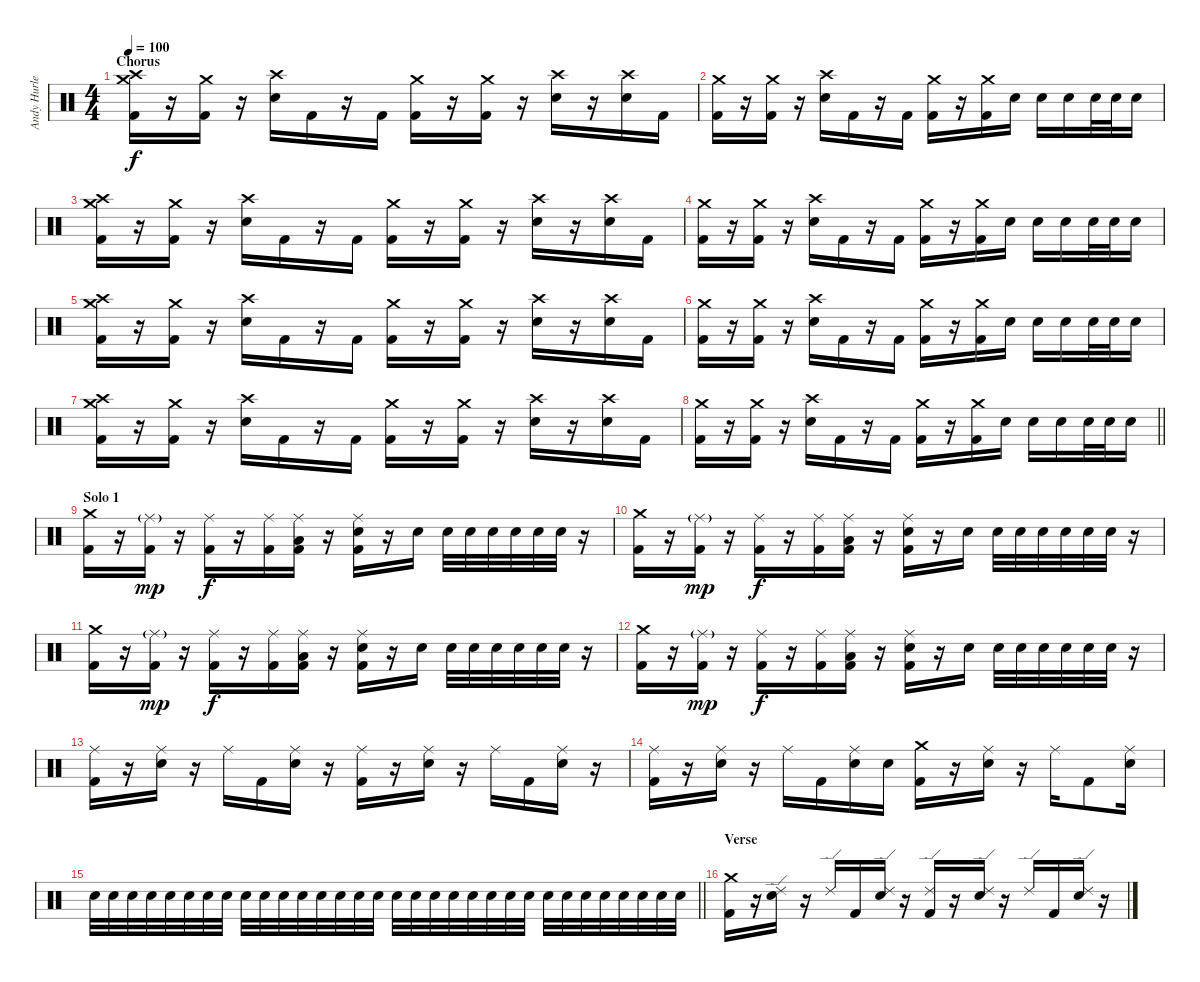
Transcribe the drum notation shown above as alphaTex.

\track ("Andy Hurley" "Andy Hurle") {instrument percussion}
\staff {score}
\articulation defaults
\ts (4 4)
\section ("" "Chorus")
\tempo 100
\clef neutral
\ks c
("Crash high (hit)" "Crash medium (hit)" "Kick (hit) 2").16{dy f} r.16 ("Crash medium (hit)" "Kick (hit) 2").16 r.16 ("Crash high (hit)" "Electric Snare (hit)").16 "Kick (hit) 2".16 r.16 "Kick (hit) 2".16 ("Crash medium (hit)" "Kick (hit) 2").16 r.16 ("Crash medium (hit)" "Kick (hit) 2").16 r.16 ("Crash high (hit)" "Electric Snare (hit)").16 r.16 ("Crash high (hit)" "Electric Snare (hit)").16 "Kick (hit) 2".16 |
("Crash medium (hit)" "Kick (hit) 2").16 r.16 ("Crash medium (hit)" "Kick (hit) 2").16 r.16 ("Crash high (hit)" "Electric Snare (hit)").16 "Kick (hit) 2".16 r.16 "Kick (hit) 2".16 ("Crash medium (hit)" "Kick (hit) 2").16 r.16 ("Crash medium (hit)" "Kick (hit) 2").16 "Electric Snare (hit)".16 "Electric Snare (hit)".16 "Electric Snare (hit)".16 "Electric Snare (hit)".32 "Electric Snare (hit)".32 "Electric Snare (hit)".16 |
("Crash high (hit)" "Crash medium (hit)" "Kick (hit) 2").16 r.16 ("Crash medium (hit)" "Kick (hit) 2").16 r.16 ("Crash high (hit)" "Electric Snare (hit)").16 "Kick (hit) 2".16 r.16 "Kick (hit) 2".16 ("Crash medium (hit)" "Kick (hit) 2").16 r.16 ("Crash medium (hit)" "Kick (hit) 2").16 r.16 ("Crash high (hit)" "Electric Snare (hit)").16 r.16 ("Crash high (hit)" "Electric Snare (hit)").16 "Kick (hit) 2".16 |
("Crash medium (hit)" "Kick (hit) 2").16 r.16 ("Crash medium (hit)" "Kick (hit) 2").16 r.16 ("Crash high (hit)" "Electric Snare (hit)").16 "Kick (hit) 2".16 r.16 "Kick (hit) 2".16 ("Crash medium (hit)" "Kick (hit) 2").16 r.16 ("Crash medium (hit)" "Kick (hit) 2").16 "Electric Snare (hit)".16 "Electric Snare (hit)".16 "Electric Snare (hit)".16 "Electric Snare (hit)".32 "Electric Snare (hit)".32 "Electric Snare (hit)".16 |
("Crash high (hit)" "Crash medium (hit)" "Kick (hit) 2").16 r.16 ("Crash medium (hit)" "Kick (hit) 2").16 r.16 ("Crash high (hit)" "Electric Snare (hit)").16 "Kick (hit) 2".16 r.16 "Kick (hit) 2".16 ("Crash medium (hit)" "Kick (hit) 2").16 r.16 ("Crash medium (hit)" "Kick (hit) 2").16 r.16 ("Crash high (hit)" "Electric Snare (hit)").16 r.16 ("Crash high (hit)" "Electric Snare (hit)").16 "Kick (hit) 2".16 |
("Crash medium (hit)" "Kick (hit) 2").16 r.16 ("Crash medium (hit)" "Kick (hit) 2").16 r.16 ("Crash high (hit)" "Electric Snare (hit)").16 "Kick (hit) 2".16 r.16 "Kick (hit) 2".16 ("Crash medium (hit)" "Kick (hit) 2").16 r.16 ("Crash medium (hit)" "Kick (hit) 2").16 "Electric Snare (hit)".16 "Electric Snare (hit)".16 "Electric Snare (hit)".16 "Electric Snare (hit)".32 "Electric Snare (hit)".32 "Electric Snare (hit)".16 |
("Crash high (hit)" "Crash medium (hit)" "Kick (hit) 2").16 r.16 ("Crash medium (hit)" "Kick (hit) 2").16 r.16 ("Crash high (hit)" "Electric Snare (hit)").16 "Kick (hit) 2".16 r.16 "Kick (hit) 2".16 ("Crash medium (hit)" "Kick (hit) 2").16 r.16 ("Crash medium (hit)" "Kick (hit) 2").16 r.16 ("Crash high (hit)" "Electric Snare (hit)").16 r.16 ("Crash high (hit)" "Electric Snare (hit)").16 "Kick (hit) 2".16 |
\barLineRight lightlight
("Crash medium (hit)" "Kick (hit) 2").16 r.16 ("Crash medium (hit)" "Kick (hit) 2").16 r.16 ("Crash high (hit)" "Electric Snare (hit)").16 "Kick (hit) 2".16 r.16 "Kick (hit) 2".16 ("Crash medium (hit)" "Kick (hit) 2").16 r.16 ("Crash medium (hit)" "Kick (hit) 2").16 "Electric Snare (hit)".16 "Electric Snare (hit)".16 "Electric Snare (hit)".16 "Electric Snare (hit)".32 "Electric Snare (hit)".32 "Electric Snare (hit)".16 |
\section ("" "Solo 1")
("Crash medium (hit)" "Kick (hit) 2").16 r.16 ("Ride (middle)"{g} "Kick (hit) 2").16{dy mp} r.16 ("Ride (middle)" "Kick (hit) 2").16{dy f} r.16 ("Ride (middle)" "Kick (hit) 2").16 ("Ride (middle)" "Low Tom (hit)" "Kick (hit) 2").16 r.16 ("Ride (middle)" "Electric Snare (hit)" "Kick (hit) 2").16 r.16 "Electric Snare (hit)".16 "Electric Snare (hit)".32 "Electric Snare (hit)".32 "Electric Snare (hit)".32 "Electric Snare (hit)".32 "Electric Snare (hit)".32 "Electric Snare (hit)".32 r.16 |
("Crash medium (hit)" "Kick (hit) 2").16 r.16 ("Ride (middle)"{g} "Kick (hit) 2").16{dy mp} r.16 ("Ride (middle)" "Kick (hit) 2").16{dy f} r.16 ("Ride (middle)" "Kick (hit) 2").16 ("Ride (middle)" "Low Tom (hit)" "Kick (hit) 2").16 r.16 ("Ride (middle)" "Electric Snare (hit)" "Kick (hit) 2").16 r.16 "Electric Snare (hit)".16 "Electric Snare (hit)".32 "Electric Snare (hit)".32 "Electric Snare (hit)".32 "Electric Snare (hit)".32 "Electric Snare (hit)".32 "Electric Snare (hit)".32 r.16 |
("Crash medium (hit)" "Kick (hit) 2").16 r.16 ("Ride (middle)"{g} "Kick (hit) 2").16{dy mp} r.16 ("Ride (middle)" "Kick (hit) 2").16{dy f} r.16 ("Ride (middle)" "Kick (hit) 2").16 ("Ride (middle)" "Low Tom (hit)" "Kick (hit) 2").16 r.16 ("Ride (middle)" "Electric Snare (hit)" "Kick (hit) 2").16 r.16 "Electric Snare (hit)".16 "Electric Snare (hit)".32 "Electric Snare (hit)".32 "Electric Snare (hit)".32 "Electric Snare (hit)".32 "Electric Snare (hit)".32 "Electric Snare (hit)".32 r.16 |
("Crash medium (hit)" "Kick (hit) 2").16 r.16 ("Ride (middle)"{g} "Kick (hit) 2").16{dy mp} r.16 ("Ride (middle)" "Kick (hit) 2").16{dy f} r.16 ("Ride (middle)" "Kick (hit) 2").16 ("Ride (middle)" "Low Tom (hit)" "Kick (hit) 2").16 r.16 ("Ride (middle)" "Electric Snare (hit)" "Kick (hit) 2").16 r.16 "Electric Snare (hit)".16 "Electric Snare (hit)".32 "Electric Snare (hit)".32 "Electric Snare (hit)".32 "Electric Snare (hit)".32 "Electric Snare (hit)".32 "Electric Snare (hit)".32 r.16 |
("Ride (middle)" "Kick (hit) 2").16 r.16 ("Ride (middle)" "Electric Snare (hit)").16 r.16 "Ride (middle)".16 "Kick (hit) 2".16 ("Ride (middle)" "Electric Snare (hit)").16 r.16 ("Ride (middle)" "Kick (hit) 2").16 r.16 ("Ride (middle)" "Electric Snare (hit)").16 r.16 "Ride (middle)".16 "Kick (hit) 2".16 ("Ride (middle)" "Electric Snare (hit)").16 r.16 |
("Ride (middle)" "Kick (hit) 2").16 r.16 ("Ride (middle)" "Electric Snare (hit)").16 r.16 "Ride (middle)".16 "Kick (hit) 2".16 ("Ride (middle)" "Electric Snare (hit)").16 "Electric Snare (hit)".16 ("Crash medium (hit)" "Kick (hit) 2").16 r.16 ("Ride (middle)" "Electric Snare (hit)").16 r.16 "Ride (middle)".16 "Kick (hit) 2".8 ("Ride (middle)" "Electric Snare (hit)").16 |
\barLineRight lightlight "Snare (hit) 2".32 "Snare (hit) 2".32 "Snare (hit) 2".32 "Snare (hit) 2".32 "Snare (hit) 2".32 "Snare (hit) 2".32 "Snare (hit) 2".32 "Snare (hit) 2".32 "Snare (hit) 2".32 "Snare (hit) 2".32 "Snare (hit) 2".32 "Snare (hit) 2".32 "Snare (hit) 2".32 "Snare (hit) 2".32 "Snare (hit) 2".32 "Snare (hit) 2".32 "Snare (hit) 2".32 "Snare (hit) 2".32 "Snare (hit) 2".32 "Snare (hit) 2".32 "Snare (hit) 2".32 "Snare (hit) 2".32 "Snare (hit) 2".32 "Snare (hit) 2".32 "Snare (hit) 2".32 "Snare (hit) 2".32 "Snare (hit) 2".32 "Snare (hit) 2".32 "Snare (hit) 2".32 "Snare (hit) 2".32 "Snare (hit) 2".32 "Snare (hit) 2".32
|
\section ("" "Verse")
("Crash medium (hit)" "Kick (hit) 2").16 r.16 ("Ride (edge) 2" "Electric Snare (hit)").16 r.16 "Ride (edge) 2".16 "Kick (hit) 2".16 ("Ride (edge) 2" "Electric Snare (hit)").16 r.16 ("Ride (edge) 2" "Kick (hit) 2").16 r.16 ("Ride (edge) 2" "Electric Snare (hit)").16 r.16 "Ride (edge) 2".16 "Kick (hit) 2".16 ("Ride (edge) 2" "Electric Snare (hit)").16 r.16
